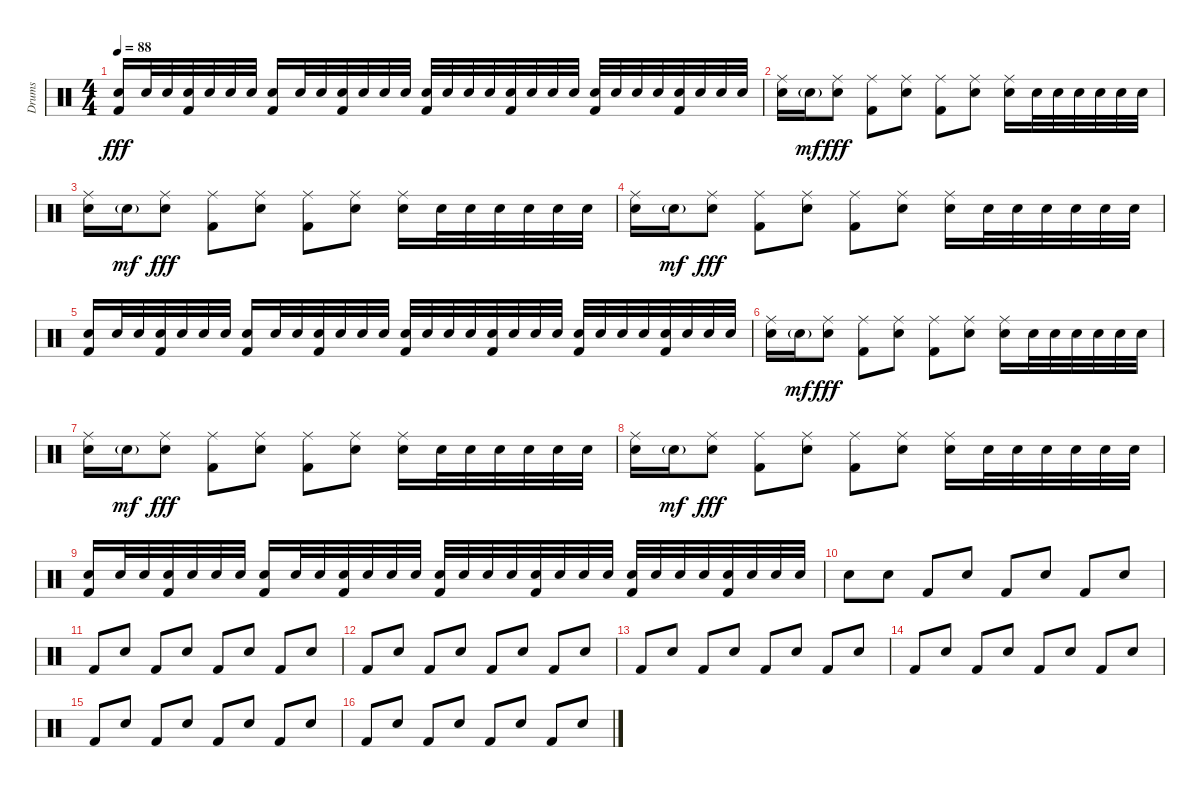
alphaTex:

\track ("Drums" "Drums") {instrument percussion}
\staff {score}
\articulation defaults
\ts (4 4)
\tempo 88
\clef neutral
\ks c
("Kick (hit) 2" "Electric Snare (hit)").16{dy fff} "Electric Snare (hit)".32 "Electric Snare (hit)".32 ("Kick (hit) 2" "Electric Snare (hit)").32 "Electric Snare (hit)".32 "Electric Snare (hit)".32 "Electric Snare (hit)".32 ("Kick (hit) 2" "Electric Snare (hit)").16 "Electric Snare (hit)".32 "Electric Snare (hit)".32 ("Kick (hit) 2" "Electric Snare (hit)").32 "Electric Snare (hit)".32 "Electric Snare (hit)".32 "Electric Snare (hit)".32 ("Kick (hit) 2" "Electric Snare (hit)").32 "Electric Snare (hit)".32 "Electric Snare (hit)".32 "Electric Snare (hit)".32 ("Kick (hit) 2" "Electric Snare (hit)").32 "Electric Snare (hit)".32 "Electric Snare (hit)".32 "Electric Snare (hit)".32 ("Kick (hit) 2" "Electric Snare (hit)").32 "Electric Snare (hit)".32 "Electric Snare (hit)".32 "Electric Snare (hit)".32 ("Kick (hit) 2" "Electric Snare (hit)").32 "Electric Snare (hit)".32 "Electric Snare (hit)".32 "Electric Snare (hit)".32 |
("Ride (middle)" "Electric Snare (hit)").16 "Electric Snare (hit)"{g}.16{dy mf} ("Ride (middle)" "Electric Snare (hit)").8{dy fff} ("Ride (middle)" "Kick (hit) 2").8 ("Ride (middle)" "Electric Snare (hit)").8 ("Ride (middle)" "Kick (hit) 2").8 ("Ride (middle)" "Electric Snare (hit)").8 ("Ride (middle)" "Electric Snare (hit)").16 "Electric Snare (hit)".32 "Electric Snare (hit)".32 "Electric Snare (hit)".32 "Electric Snare (hit)".32 "Electric Snare (hit)".32 "Electric Snare (hit)".32 |
("Ride (middle)" "Electric Snare (hit)").16 "Electric Snare (hit)"{g}.16{dy mf} ("Ride (middle)" "Electric Snare (hit)").8{dy fff} ("Ride (middle)" "Kick (hit) 2").8 ("Ride (middle)" "Electric Snare (hit)").8 ("Ride (middle)" "Kick (hit) 2").8 ("Ride (middle)" "Electric Snare (hit)").8 ("Ride (middle)" "Electric Snare (hit)").16 "Electric Snare (hit)".32 "Electric Snare (hit)".32 "Electric Snare (hit)".32 "Electric Snare (hit)".32 "Electric Snare (hit)".32 "Electric Snare (hit)".32 |
("Ride (middle)" "Electric Snare (hit)").16 "Electric Snare (hit)"{g}.16{dy mf} ("Ride (middle)" "Electric Snare (hit)").8{dy fff} ("Ride (middle)" "Kick (hit) 2").8 ("Ride (middle)" "Electric Snare (hit)").8 ("Ride (middle)" "Kick (hit) 2").8 ("Ride (middle)" "Electric Snare (hit)").8 ("Ride (middle)" "Electric Snare (hit)").16 "Electric Snare (hit)".32 "Electric Snare (hit)".32 "Electric Snare (hit)".32 "Electric Snare (hit)".32 "Electric Snare (hit)".32 "Electric Snare (hit)".32 |
("Kick (hit) 2" "Electric Snare (hit)").16 "Electric Snare (hit)".32 "Electric Snare (hit)".32 ("Kick (hit) 2" "Electric Snare (hit)").32 "Electric Snare (hit)".32 "Electric Snare (hit)".32 "Electric Snare (hit)".32 ("Kick (hit) 2" "Electric Snare (hit)").16 "Electric Snare (hit)".32 "Electric Snare (hit)".32 ("Kick (hit) 2" "Electric Snare (hit)").32 "Electric Snare (hit)".32 "Electric Snare (hit)".32 "Electric Snare (hit)".32 ("Kick (hit) 2" "Electric Snare (hit)").32 "Electric Snare (hit)".32 "Electric Snare (hit)".32 "Electric Snare (hit)".32 ("Kick (hit) 2" "Electric Snare (hit)").32 "Electric Snare (hit)".32 "Electric Snare (hit)".32 "Electric Snare (hit)".32 ("Kick (hit) 2" "Electric Snare (hit)").32 "Electric Snare (hit)".32 "Electric Snare (hit)".32 "Electric Snare (hit)".32 ("Kick (hit) 2" "Electric Snare (hit)").32 "Electric Snare (hit)".32 "Electric Snare (hit)".32 "Electric Snare (hit)".32 |
("Ride (middle)" "Electric Snare (hit)").16 "Electric Snare (hit)"{g}.16{dy mf} ("Ride (middle)" "Electric Snare (hit)").8{dy fff} ("Ride (middle)" "Kick (hit) 2").8 ("Ride (middle)" "Electric Snare (hit)").8 ("Ride (middle)" "Kick (hit) 2").8 ("Ride (middle)" "Electric Snare (hit)").8 ("Ride (middle)" "Electric Snare (hit)").16 "Electric Snare (hit)".32 "Electric Snare (hit)".32 "Electric Snare (hit)".32 "Electric Snare (hit)".32 "Electric Snare (hit)".32 "Electric Snare (hit)".32 |
("Ride (middle)" "Electric Snare (hit)").16 "Electric Snare (hit)"{g}.16{dy mf} ("Ride (middle)" "Electric Snare (hit)").8{dy fff} ("Ride (middle)" "Kick (hit) 2").8 ("Ride (middle)" "Electric Snare (hit)").8 ("Ride (middle)" "Kick (hit) 2").8 ("Ride (middle)" "Electric Snare (hit)").8 ("Ride (middle)" "Electric Snare (hit)").16 "Electric Snare (hit)".32 "Electric Snare (hit)".32 "Electric Snare (hit)".32 "Electric Snare (hit)".32 "Electric Snare (hit)".32 "Electric Snare (hit)".32 |
("Ride (middle)" "Electric Snare (hit)").16 "Electric Snare (hit)"{g}.16{dy mf} ("Ride (middle)" "Electric Snare (hit)").8{dy fff} ("Ride (middle)" "Kick (hit) 2").8 ("Ride (middle)" "Electric Snare (hit)").8 ("Ride (middle)" "Kick (hit) 2").8 ("Ride (middle)" "Electric Snare (hit)").8 ("Ride (middle)" "Electric Snare (hit)").16 "Electric Snare (hit)".32 "Electric Snare (hit)".32 "Electric Snare (hit)".32 "Electric Snare (hit)".32 "Electric Snare (hit)".32 "Electric Snare (hit)".32 |
("Kick (hit) 2" "Electric Snare (hit)").16 "Electric Snare (hit)".32 "Electric Snare (hit)".32 ("Kick (hit) 2" "Electric Snare (hit)").32 "Electric Snare (hit)".32 "Electric Snare (hit)".32 "Electric Snare (hit)".32 ("Kick (hit) 2" "Electric Snare (hit)").16 "Electric Snare (hit)".32 "Electric Snare (hit)".32 ("Kick (hit) 2" "Electric Snare (hit)").32 "Electric Snare (hit)".32 "Electric Snare (hit)".32 "Electric Snare (hit)".32 ("Kick (hit) 2" "Electric Snare (hit)").32 "Electric Snare (hit)".32 "Electric Snare (hit)".32 "Electric Snare (hit)".32 ("Kick (hit) 2" "Electric Snare (hit)").32 "Electric Snare (hit)".32 "Electric Snare (hit)".32 "Electric Snare (hit)".32 ("Kick (hit) 2" "Electric Snare (hit)").32 "Electric Snare (hit)".32 "Electric Snare (hit)".32 "Electric Snare (hit)".32 ("Kick (hit) 2" "Electric Snare (hit)").32 "Electric Snare (hit)".32 "Electric Snare (hit)".32 "Electric Snare (hit)".32 |
"Electric Snare (hit)".8 "Electric Snare (hit)".8 "Kick (hit) 2".8 "Electric Snare (hit)".8 "Kick (hit) 2".8 "Electric Snare (hit)".8 "Kick (hit) 2".8 "Electric Snare (hit)".8 |
"Kick (hit) 2".8 "Electric Snare (hit)".8 "Kick (hit) 2".8 "Electric Snare (hit)".8 "Kick (hit) 2".8 "Electric Snare (hit)".8 "Kick (hit) 2".8 "Electric Snare (hit)".8 |
"Kick (hit) 2".8 "Electric Snare (hit)".8 "Kick (hit) 2".8 "Electric Snare (hit)".8 "Kick (hit) 2".8 "Electric Snare (hit)".8 "Kick (hit) 2".8 "Electric Snare (hit)".8 |
"Kick (hit) 2".8 "Electric Snare (hit)".8 "Kick (hit) 2".8 "Electric Snare (hit)".8 "Kick (hit) 2".8 "Electric Snare (hit)".8 "Kick (hit) 2".8 "Electric Snare (hit)".8 |
"Kick (hit) 2".8 "Electric Snare (hit)".8 "Kick (hit) 2".8 "Electric Snare (hit)".8 "Kick (hit) 2".8 "Electric Snare (hit)".8 "Kick (hit) 2".8 "Electric Snare (hit)".8 |
"Kick (hit) 2".8 "Electric Snare (hit)".8 "Kick (hit) 2".8 "Electric Snare (hit)".8 "Kick (hit) 2".8 "Electric Snare (hit)".8 "Kick (hit) 2".8 "Electric Snare (hit)".8 |
"Kick (hit) 2".8 "Electric Snare (hit)".8 "Kick (hit) 2".8 "Electric Snare (hit)".8 "Kick (hit) 2".8 "Electric Snare (hit)".8 "Kick (hit) 2".8 "Electric Snare (hit)".8
